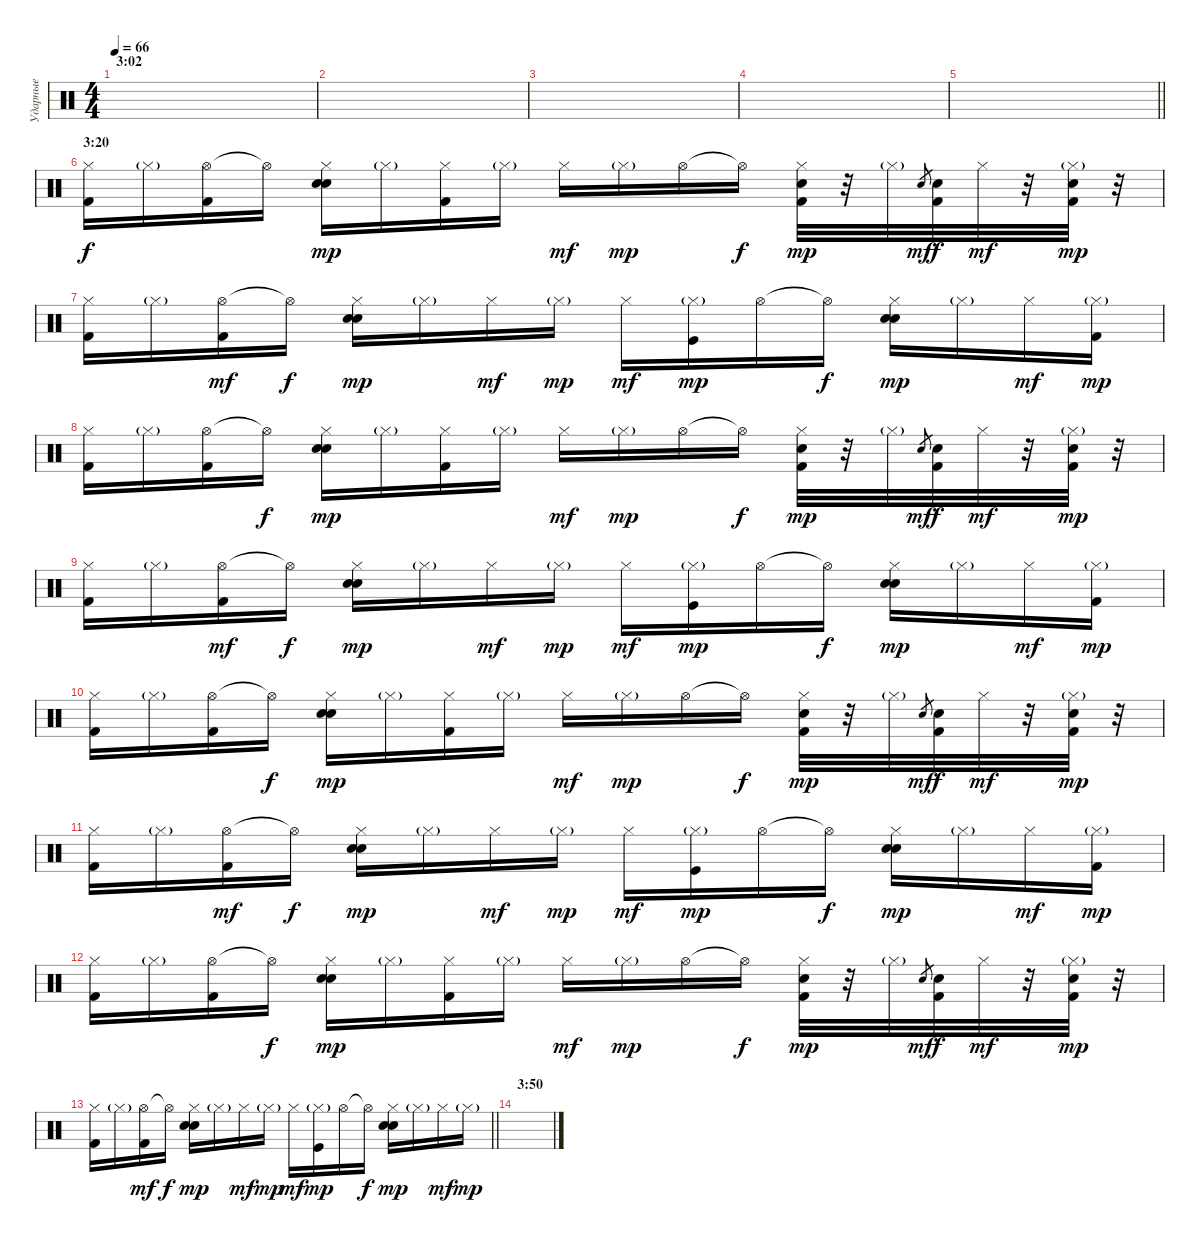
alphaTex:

\track ("Ударные" "Ударные") {instrument percussion}
\staff {score}
\articulation defaults
\ts (4 4)
\section ("" "3:02")
\tempo 66
\clef neutral
\ks c
|
|
|
|
\barLineRight lightlight
|
\section ("" "3:20")
("Hi-Hat (closed)" "Kick (hit) 2").16 "Hi-Hat (closed)"{g}.16 ("Hi-Hat (open)" "Kick (hit) 2").16 "Hi-Hat (open)"{t}.16{dy f} ("Hi-Hat (closed)" "Hand Clap (hit)" "Electric Snare (hit)").16{dy mp} "Hi-Hat (closed)"{g}.16 ("Hi-Hat (closed)" "Kick (hit) 2").16 "Hi-Hat (closed)"{g}.16 "Hi-Hat (closed)".16{dy mf} "Hi-Hat (closed)"{g}.16{dy mp} "Hi-Hat (open)".16{balance 0} "Hi-Hat (open)"{t}.16{dy f} ("Hi-Hat (closed)" "Hand Clap (hit)" "Kick (hit) 2").32{dy mp balance 8} r.32 "Hi-Hat (closed)"{g}.32 "Hand Clap (hit)".8{gr dy mf} ("Hand Clap (hit)" "Kick (hit) 2").32{dy f} "Hi-Hat (closed)".32{dy mf} r.32 ("Hand Clap (hit)" "Hi-Hat (closed)"{g} "Kick (hit) 2").32{dy mp} r.32 |
("Hi-Hat (closed)" "Kick (hit) 2").16 "Hi-Hat (closed)"{g}.16 ("Hi-Hat (open)" "Kick (hit) 2").16{dy mf} "Hi-Hat (open)"{t}.16{dy f} ("Hi-Hat (closed)" "Hand Clap (hit)" "Electric Snare (hit)").16{dy mp} "Hi-Hat (closed)"{g}.16 "Hi-Hat (closed)".16{dy mf} "Hi-Hat (closed)"{g}.16{dy mp} "Hi-Hat (closed)".16{dy mf} ("Hi-Hat (closed)"{g} "Kick (hit)").16{dy mp} "Hi-Hat (open)".16{balance 0} "Hi-Hat (open)"{t}.16{dy f} ("Hi-Hat (closed)" "Hand Clap (hit)" "Electric Snare (hit)").16{dy mp balance 8} "Hi-Hat (closed)"{g}.16 "Hi-Hat (closed)".16{dy mf} ("Hi-Hat (closed)"{g} "Kick (hit) 2").16{dy mp} |
("Hi-Hat (closed)" "Kick (hit) 2").16 "Hi-Hat (closed)"{g}.16 ("Hi-Hat (open)" "Kick (hit) 2").16 "Hi-Hat (open)"{t}.16{dy f} ("Hi-Hat (closed)" "Hand Clap (hit)" "Electric Snare (hit)").16{dy mp} "Hi-Hat (closed)"{g}.16 ("Hi-Hat (closed)" "Kick (hit) 2").16 "Hi-Hat (closed)"{g}.16 "Hi-Hat (closed)".16{dy mf} "Hi-Hat (closed)"{g}.16{dy mp} "Hi-Hat (open)".16{balance 0} "Hi-Hat (open)"{t}.16{dy f} ("Hi-Hat (closed)" "Hand Clap (hit)" "Kick (hit) 2").32{dy mp balance 8} r.32 "Hi-Hat (closed)"{g}.32 "Hand Clap (hit)".8{gr dy mf} ("Hand Clap (hit)" "Kick (hit) 2").32{dy f} "Hi-Hat (closed)".32{dy mf} r.32 ("Hand Clap (hit)" "Hi-Hat (closed)"{g} "Kick (hit) 2").32{dy mp} r.32 |
("Hi-Hat (closed)" "Kick (hit) 2").16 "Hi-Hat (closed)"{g}.16 ("Hi-Hat (open)" "Kick (hit) 2").16{dy mf} "Hi-Hat (open)"{t}.16{dy f} ("Hi-Hat (closed)" "Hand Clap (hit)" "Electric Snare (hit)").16{dy mp} "Hi-Hat (closed)"{g}.16 "Hi-Hat (closed)".16{dy mf} "Hi-Hat (closed)"{g}.16{dy mp} "Hi-Hat (closed)".16{dy mf} ("Hi-Hat (closed)"{g} "Kick (hit)").16{dy mp} "Hi-Hat (open)".16{balance 0} "Hi-Hat (open)"{t}.16{dy f} ("Hi-Hat (closed)" "Hand Clap (hit)" "Electric Snare (hit)").16{dy mp balance 8} "Hi-Hat (closed)"{g}.16 "Hi-Hat (closed)".16{dy mf} ("Hi-Hat (closed)"{g} "Kick (hit) 2").16{dy mp} |
("Hi-Hat (closed)" "Kick (hit) 2").16 "Hi-Hat (closed)"{g}.16 ("Hi-Hat (open)" "Kick (hit) 2").16 "Hi-Hat (open)"{t}.16{dy f} ("Hi-Hat (closed)" "Hand Clap (hit)" "Electric Snare (hit)").16{dy mp} "Hi-Hat (closed)"{g}.16 ("Hi-Hat (closed)" "Kick (hit) 2").16 "Hi-Hat (closed)"{g}.16 "Hi-Hat (closed)".16{dy mf} "Hi-Hat (closed)"{g}.16{dy mp} "Hi-Hat (open)".16{balance 0} "Hi-Hat (open)"{t}.16{dy f} ("Hi-Hat (closed)" "Hand Clap (hit)" "Kick (hit) 2").32{dy mp balance 8} r.32 "Hi-Hat (closed)"{g}.32 "Hand Clap (hit)".8{gr dy mf} ("Hand Clap (hit)" "Kick (hit) 2").32{dy f} "Hi-Hat (closed)".32{dy mf} r.32 ("Hand Clap (hit)" "Hi-Hat (closed)"{g} "Kick (hit) 2").32{dy mp} r.32 |
("Hi-Hat (closed)" "Kick (hit) 2").16 "Hi-Hat (closed)"{g}.16 ("Hi-Hat (open)" "Kick (hit) 2").16{dy mf} "Hi-Hat (open)"{t}.16{dy f} ("Hi-Hat (closed)" "Hand Clap (hit)" "Electric Snare (hit)").16{dy mp} "Hi-Hat (closed)"{g}.16 "Hi-Hat (closed)".16{dy mf} "Hi-Hat (closed)"{g}.16{dy mp} "Hi-Hat (closed)".16{dy mf} ("Hi-Hat (closed)"{g} "Kick (hit)").16{dy mp} "Hi-Hat (open)".16{balance 0} "Hi-Hat (open)"{t}.16{dy f} ("Hi-Hat (closed)" "Hand Clap (hit)" "Electric Snare (hit)").16{dy mp balance 8} "Hi-Hat (closed)"{g}.16 "Hi-Hat (closed)".16{dy mf} ("Hi-Hat (closed)"{g} "Kick (hit) 2").16{dy mp} |
("Hi-Hat (closed)" "Kick (hit) 2").16 "Hi-Hat (closed)"{g}.16 ("Hi-Hat (open)" "Kick (hit) 2").16 "Hi-Hat (open)"{t}.16{dy f} ("Hi-Hat (closed)" "Hand Clap (hit)" "Electric Snare (hit)").16{dy mp} "Hi-Hat (closed)"{g}.16 ("Hi-Hat (closed)" "Kick (hit) 2").16 "Hi-Hat (closed)"{g}.16 "Hi-Hat (closed)".16{dy mf} "Hi-Hat (closed)"{g}.16{dy mp} "Hi-Hat (open)".16{balance 0} "Hi-Hat (open)"{t}.16{dy f} ("Hi-Hat (closed)" "Hand Clap (hit)" "Kick (hit) 2").32{dy mp balance 8} r.32 "Hi-Hat (closed)"{g}.32 "Hand Clap (hit)".8{gr dy mf} ("Hand Clap (hit)" "Kick (hit) 2").32{dy f} "Hi-Hat (closed)".32{dy mf} r.32 ("Hand Clap (hit)" "Hi-Hat (closed)"{g} "Kick (hit) 2").32{dy mp} r.32 |
\barLineRight lightlight
("Hi-Hat (closed)" "Kick (hit) 2").16 "Hi-Hat (closed)"{g}.16 ("Hi-Hat (open)" "Kick (hit) 2").16{dy mf} "Hi-Hat (open)"{t}.16{dy f} ("Hi-Hat (closed)" "Hand Clap (hit)" "Electric Snare (hit)").16{dy mp} "Hi-Hat (closed)"{g}.16 "Hi-Hat (closed)".16{dy mf} "Hi-Hat (closed)"{g}.16{dy mp} "Hi-Hat (closed)".16{dy mf} ("Hi-Hat (closed)"{g} "Kick (hit)").16{dy mp} "Hi-Hat (open)".16{balance 0} "Hi-Hat (open)"{t}.16{dy f} ("Hi-Hat (closed)" "Hand Clap (hit)" "Electric Snare (hit)").16{dy mp balance 8} "Hi-Hat (closed)"{g}.16 "Hi-Hat (closed)".16{dy mf} "Hi-Hat (closed)"{g}.16{dy mp} |
\section ("" "3:50")
